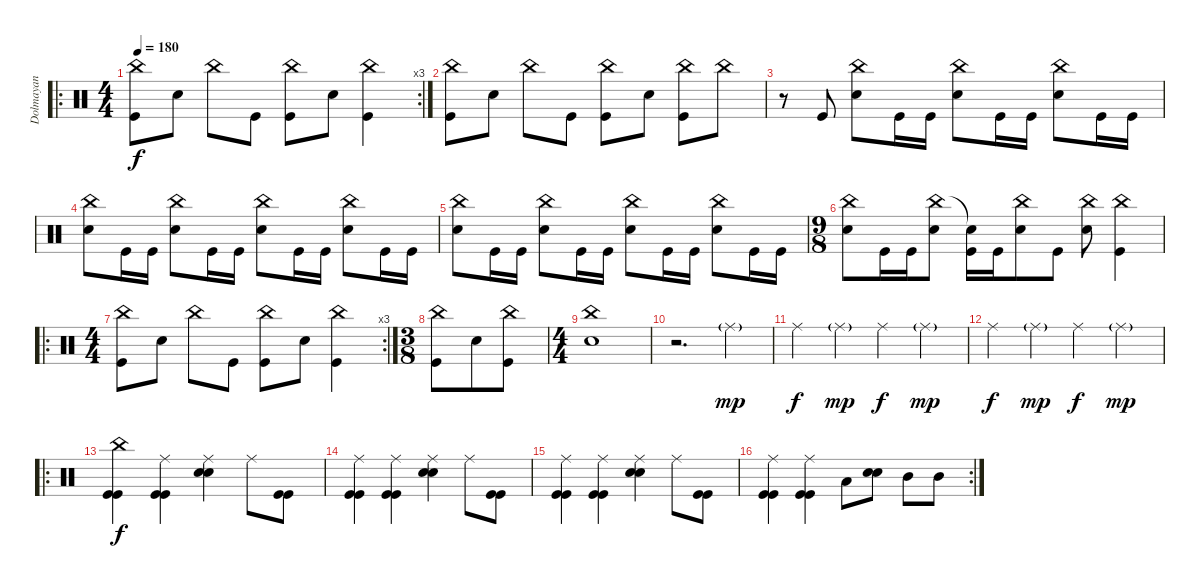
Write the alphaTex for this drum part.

\track ("Dolmayan" "Dolmayan") {instrument percussion}
\staff {score}
\articulation defaults
\ro
\rc 3
\ts (4 4)
\tempo 180
\clef neutral
\ks c
("China (hit)" "Kick (hit)").8{dy f} "Snare (hit) 2".8 "China (hit)".8 "Kick (hit)".8 ("China (hit)" "Kick (hit)").8 "Snare (hit) 2".8 ("China (hit)" "Kick (hit)").4 |
("China (hit)" "Kick (hit)").8 "Snare (hit) 2".8 "China (hit)".8 "Kick (hit)".8 ("China (hit)" "Kick (hit)").8 "Snare (hit) 2".8 ("China (hit)" "Kick (hit)").8 "China (hit)".8 |
r.8 "Kick (hit)".8 ("China (hit)" "Snare (hit) 2").8 "Kick (hit)".16 "Kick (hit)".16 ("China (hit)" "Snare (hit) 2").8 "Kick (hit)".16 "Kick (hit)".16 ("China (hit)" "Snare (hit) 2").8 "Kick (hit)".16 "Kick (hit)".16 |
("China (hit)" "Snare (hit) 2").8 "Kick (hit)".16 "Kick (hit)".16 ("China (hit)" "Snare (hit) 2").8 "Kick (hit)".16 "Kick (hit)".16 ("China (hit)" "Snare (hit) 2").8 "Kick (hit)".16 "Kick (hit)".16 ("China (hit)" "Snare (hit) 2").8 "Kick (hit)".16 "Kick (hit)".16 |
("China (hit)" "Snare (hit) 2").8 "Kick (hit)".16 "Kick (hit)".16 ("China (hit)" "Snare (hit) 2").8 "Kick (hit)".16 "Kick (hit)".16 ("China (hit)" "Snare (hit) 2").8 "Kick (hit)".16 "Kick (hit)".16 ("China (hit)" "Snare (hit) 2").8 "Kick (hit)".16 "Kick (hit)".16 |
\ts (9 8)
("China (hit)" "Snare (hit) 2").8 "Kick (hit)".16 "Kick (hit)".16 ("China (hit)" "Snare (hit) 2").8 ("Snare (hit)"{t} "Kick (hit)").16 "Kick (hit)".16 ("China (hit)" "Snare (hit) 2").8 "Kick (hit)".8 ("China (hit)" "Snare (hit) 2").8 ("China (hit)" "Kick (hit)").4 |
\ro
\rc 3
\ts (4 4)
("China (hit)" "Kick (hit)").8 "Snare (hit) 2".8 "China (hit)".8 "Kick (hit)".8 ("China (hit)" "Kick (hit)").8 "Snare (hit) 2".8 ("China (hit)" "Kick (hit)").4 |
\ts (3 8)
("China (hit)" "Kick (hit)").8 "Snare (hit) 2".8 ("China (hit)" "Kick (hit)").8 |
\ts (4 4)
("China (hit)" "Snare (hit) 2").1 |
r.2{d} "Ride (middle)"{g}.4{dy mp} |
"Ride (middle)".4{dy f} "Ride (middle)"{g}.4{dy mp} "Ride (middle)".4{dy f} "Ride (middle)"{g}.4{dy mp} |
"Ride (middle)".4{dy f} "Ride (middle)"{g}.4{dy mp} "Ride (middle)".4{dy f} "Ride (middle)"{g}.4{dy mp} |
\ro
("China (hit)" "Kick (hit)" "Kick (hit)").4{dy f} ("Ride (middle)" "Kick (hit)" "Kick (hit)").4 ("Ride (middle)" "Snare (hit) 2" "Snare (hit) 2").4 "Ride (middle)".8 ("Kick (hit)" "Kick (hit)").8 |
("Ride (middle)" "Kick (hit)" "Kick (hit)").4 ("Ride (middle)" "Kick (hit)" "Kick (hit)").4 ("Ride (middle)" "Snare (hit) 2" "Snare (hit) 2").4 "Ride (middle)".8 ("Kick (hit)" "Kick (hit)").8 |
("Ride (middle)" "Kick (hit)" "Kick (hit)").4 ("Ride (middle)" "Kick (hit)" "Kick (hit)").4 ("Ride (middle)" "Snare (hit) 2" "Snare (hit) 2").4 "Ride (middle)".8 ("Kick (hit)" "Kick (hit)").8 |
\rc 2
("Ride (middle)" "Kick (hit)" "Kick (hit)").4 ("Ride (middle)" "Kick (hit)" "Kick (hit)").4 "Low Tom (hit)".8 ("Snare (hit) 2" "Snare (hit) 2").8 "Mid Tom (hit)".8 "Mid Tom (hit)".8
